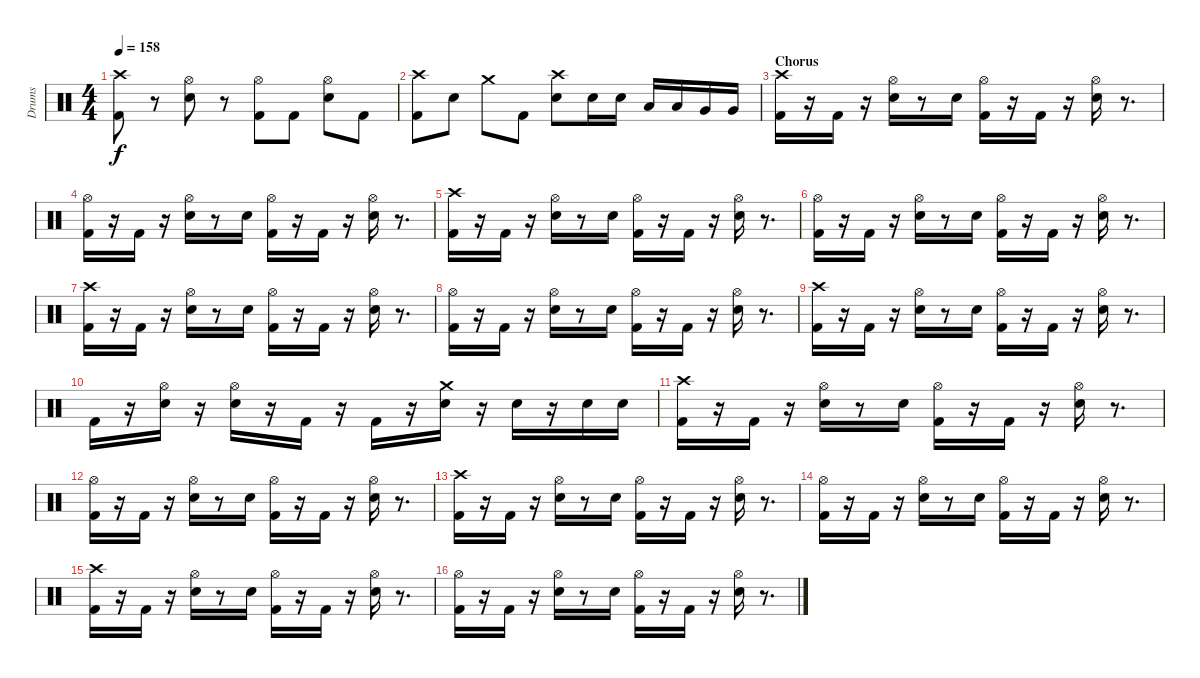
\track ("Drums" "Drums") {instrument percussion}
\staff {score}
\articulation defaults
\ts (4 4)
\tempo 158
\clef neutral
\ks c
("Crash high (hit)" "Kick (hit) 2").8{dy f} r.8 ("Hi-Hat (open)" "Electric Snare (hit)").8 r.8 ("Hi-Hat (open)" "Kick (hit) 2").8 "Kick (hit) 2".8 ("Hi-Hat (open)" "Electric Snare (hit)").8 "Kick (hit) 2".8 |
("Crash high (hit)" "Kick (hit) 2").8 "Electric Snare (hit)".8 "Crash medium (hit)".8 "Kick (hit) 2".8 ("Crash high (hit)" "Electric Snare (hit)").8 "Electric Snare (hit)".16 "Electric Snare (hit)".16 "Low Tom (hit)".16 "Low Tom (hit)".16 "Very Low Tom (hit)".16 "Very Low Tom (hit)".16 |
\section ("" "Chorus")
("Crash high (hit)" "Kick (hit) 2").16 r.16 "Kick (hit) 2".16 r.16 ("Hi-Hat (open)" "Electric Snare (hit)").16 r.8 "Electric Snare (hit)".16 ("Hi-Hat (open)" "Kick (hit) 2").16 r.16 "Kick (hit) 2".16 r.16 ("Hi-Hat (open)" "Electric Snare (hit)").16 r.8{d} |
("Hi-Hat (open)" "Kick (hit) 2").16 r.16 "Kick (hit) 2".16 r.16 ("Hi-Hat (open)" "Electric Snare (hit)").16 r.8 "Electric Snare (hit)".16 ("Hi-Hat (open)" "Kick (hit) 2").16 r.16 "Kick (hit) 2".16 r.16 ("Hi-Hat (open)" "Electric Snare (hit)").16 r.8{d} |
("Crash high (hit)" "Kick (hit) 2").16 r.16 "Kick (hit) 2".16 r.16 ("Hi-Hat (open)" "Electric Snare (hit)").16 r.8 "Electric Snare (hit)".16 ("Hi-Hat (open)" "Kick (hit) 2").16 r.16 "Kick (hit) 2".16 r.16 ("Hi-Hat (open)" "Electric Snare (hit)").16 r.8{d} |
("Hi-Hat (open)" "Kick (hit) 2").16 r.16 "Kick (hit) 2".16 r.16 ("Hi-Hat (open)" "Electric Snare (hit)").16 r.8 "Electric Snare (hit)".16 ("Hi-Hat (open)" "Kick (hit) 2").16 r.16 "Kick (hit) 2".16 r.16 ("Hi-Hat (open)" "Electric Snare (hit)").16 r.8{d} |
("Crash high (hit)" "Kick (hit) 2").16 r.16 "Kick (hit) 2".16 r.16 ("Hi-Hat (open)" "Electric Snare (hit)").16 r.8 "Electric Snare (hit)".16 ("Hi-Hat (open)" "Kick (hit) 2").16 r.16 "Kick (hit) 2".16 r.16 ("Hi-Hat (open)" "Electric Snare (hit)").16 r.8{d} |
("Hi-Hat (open)" "Kick (hit) 2").16 r.16 "Kick (hit) 2".16 r.16 ("Hi-Hat (open)" "Electric Snare (hit)").16 r.8 "Electric Snare (hit)".16 ("Hi-Hat (open)" "Kick (hit) 2").16 r.16 "Kick (hit) 2".16 r.16 ("Hi-Hat (open)" "Electric Snare (hit)").16 r.8{d} |
("Crash high (hit)" "Kick (hit) 2").16 r.16 "Kick (hit) 2".16 r.16 ("Hi-Hat (open)" "Electric Snare (hit)").16 r.8 "Electric Snare (hit)".16 ("Hi-Hat (open)" "Kick (hit) 2").16 r.16 "Kick (hit) 2".16 r.16 ("Hi-Hat (open)" "Electric Snare (hit)").16 r.8{d} |
"Kick (hit) 2".16 r.16 ("Hi-Hat (open)" "Electric Snare (hit)").16 r.16 ("Hi-Hat (open)" "Electric Snare (hit)").16 r.16 "Kick (hit) 2".16 r.16 "Kick (hit) 2".16 r.16 ("Crash medium (hit)" "Electric Snare (hit)").16 r.16 "Electric Snare (hit)".16 r.16 "Electric Snare (hit)".16 "Electric Snare (hit)".16 |
("Crash high (hit)" "Kick (hit) 2").16 r.16 "Kick (hit) 2".16 r.16 ("Hi-Hat (open)" "Electric Snare (hit)").16 r.8 "Electric Snare (hit)".16 ("Hi-Hat (open)" "Kick (hit) 2").16 r.16 "Kick (hit) 2".16 r.16 ("Hi-Hat (open)" "Electric Snare (hit)").16 r.8{d} |
("Hi-Hat (open)" "Kick (hit) 2").16 r.16 "Kick (hit) 2".16 r.16 ("Hi-Hat (open)" "Electric Snare (hit)").16 r.8 "Electric Snare (hit)".16 ("Hi-Hat (open)" "Kick (hit) 2").16 r.16 "Kick (hit) 2".16 r.16 ("Hi-Hat (open)" "Electric Snare (hit)").16 r.8{d} |
("Crash high (hit)" "Kick (hit) 2").16 r.16 "Kick (hit) 2".16 r.16 ("Hi-Hat (open)" "Electric Snare (hit)").16 r.8 "Electric Snare (hit)".16 ("Hi-Hat (open)" "Kick (hit) 2").16 r.16 "Kick (hit) 2".16 r.16 ("Hi-Hat (open)" "Electric Snare (hit)").16 r.8{d} |
("Hi-Hat (open)" "Kick (hit) 2").16 r.16 "Kick (hit) 2".16 r.16 ("Hi-Hat (open)" "Electric Snare (hit)").16 r.8 "Electric Snare (hit)".16 ("Hi-Hat (open)" "Kick (hit) 2").16 r.16 "Kick (hit) 2".16 r.16 ("Hi-Hat (open)" "Electric Snare (hit)").16 r.8{d} |
("Crash high (hit)" "Kick (hit) 2").16 r.16 "Kick (hit) 2".16 r.16 ("Hi-Hat (open)" "Electric Snare (hit)").16 r.8 "Electric Snare (hit)".16 ("Hi-Hat (open)" "Kick (hit) 2").16 r.16 "Kick (hit) 2".16 r.16 ("Hi-Hat (open)" "Electric Snare (hit)").16 r.8{d} |
("Hi-Hat (open)" "Kick (hit) 2").16 r.16 "Kick (hit) 2".16 r.16 ("Hi-Hat (open)" "Electric Snare (hit)").16 r.8 "Electric Snare (hit)".16 ("Hi-Hat (open)" "Kick (hit) 2").16 r.16 "Kick (hit) 2".16 r.16 ("Hi-Hat (open)" "Electric Snare (hit)").16 r.8{d}
